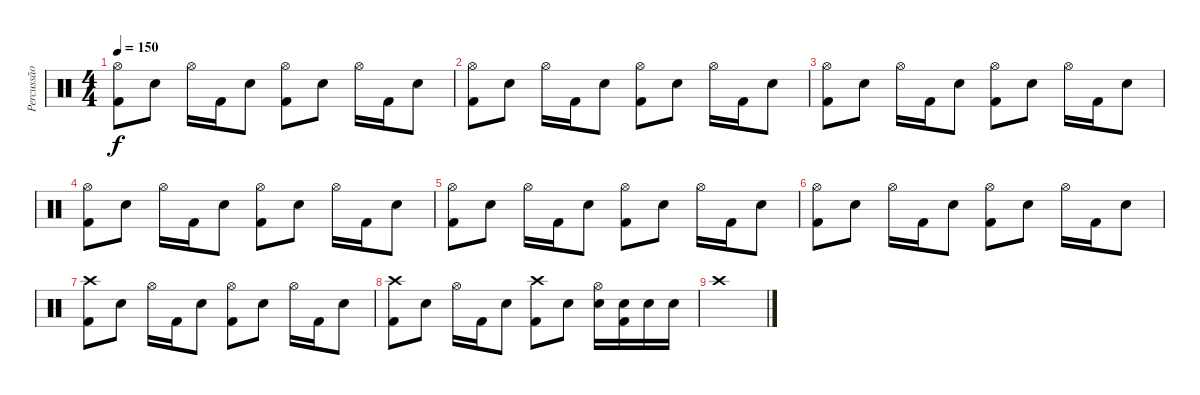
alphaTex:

\track ("Percussão" "Percussão") {instrument percussion}
\staff {score}
\articulation defaults
\ts (4 4)
\tempo 150
\clef neutral
\ks c
("Hi-Hat (open)" "Kick (hit) 2").8{dy f} "Snare (hit) 2".8 "Hi-Hat (open)".16 "Kick (hit) 2".16 "Snare (hit) 2".8 ("Hi-Hat (open)" "Kick (hit) 2").8 "Snare (hit) 2".8 "Hi-Hat (open)".16 "Kick (hit) 2".16 "Snare (hit) 2".8 |
("Hi-Hat (open)" "Kick (hit) 2").8 "Snare (hit) 2".8 "Hi-Hat (open)".16 "Kick (hit) 2".16 "Snare (hit) 2".8 ("Hi-Hat (open)" "Kick (hit) 2").8 "Snare (hit) 2".8 "Hi-Hat (open)".16 "Kick (hit) 2".16 "Snare (hit) 2".8 |
("Hi-Hat (open)" "Kick (hit) 2").8 "Snare (hit) 2".8 "Hi-Hat (open)".16 "Kick (hit) 2".16 "Snare (hit) 2".8 ("Hi-Hat (open)" "Kick (hit) 2").8 "Snare (hit) 2".8 "Hi-Hat (open)".16 "Kick (hit) 2".16 "Snare (hit) 2".8 |
("Hi-Hat (open)" "Kick (hit) 2").8 "Snare (hit) 2".8 "Hi-Hat (open)".16 "Kick (hit) 2".16 "Snare (hit) 2".8 ("Hi-Hat (open)" "Kick (hit) 2").8 "Snare (hit) 2".8 "Hi-Hat (open)".16 "Kick (hit) 2".16 "Snare (hit) 2".8 |
("Hi-Hat (open)" "Kick (hit) 2").8 "Snare (hit) 2".8 "Hi-Hat (open)".16 "Kick (hit) 2".16 "Snare (hit) 2".8 ("Hi-Hat (open)" "Kick (hit) 2").8 "Snare (hit) 2".8 "Hi-Hat (open)".16 "Kick (hit) 2".16 "Snare (hit) 2".8 |
("Hi-Hat (open)" "Kick (hit) 2").8 "Snare (hit) 2".8 "Hi-Hat (open)".16 "Kick (hit) 2".16 "Snare (hit) 2".8 ("Hi-Hat (open)" "Kick (hit) 2").8 "Snare (hit) 2".8 "Hi-Hat (open)".16 "Kick (hit) 2".16 "Snare (hit) 2".8 |
("Crash high (hit)" "Kick (hit) 2").8 "Snare (hit) 2".8 "Hi-Hat (open)".16 "Kick (hit) 2".16 "Snare (hit) 2".8 ("Hi-Hat (open)" "Kick (hit) 2").8 "Snare (hit) 2".8 "Hi-Hat (open)".16 "Kick (hit) 2".16 "Snare (hit) 2".8 |
("Crash high (hit)" "Kick (hit) 2").8 "Snare (hit) 2".8 "Hi-Hat (open)".16 "Kick (hit) 2".16 "Snare (hit) 2".8 ("Crash high (hit)" "Kick (hit) 2").8 "Snare (hit) 2".8 ("Hi-Hat (open)" "Snare (hit) 2").16 ("Snare (hit) 2" "Kick (hit) 2").16 "Snare (hit) 2".16 "Snare (hit) 2".16 |
"Crash high (hit)".1
